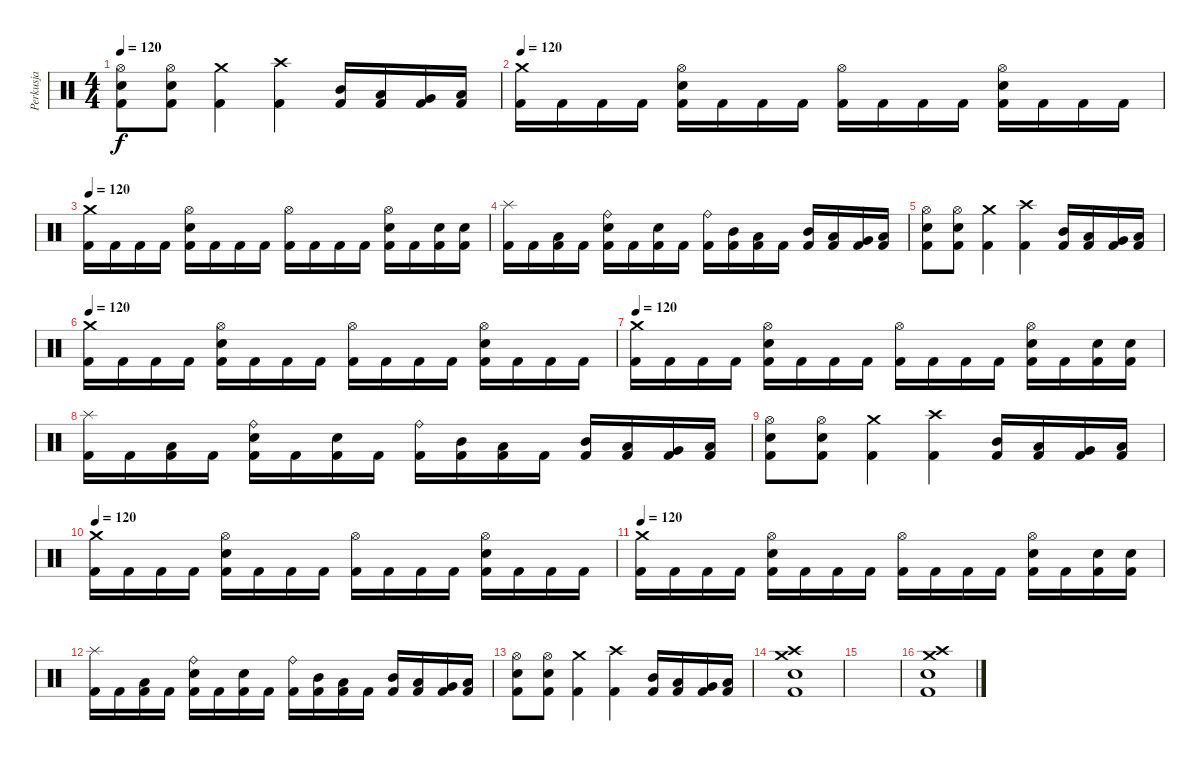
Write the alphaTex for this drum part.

\track ("Perkusja" "Perkusja") {instrument percussion}
\staff {score}
\articulation defaults
\ts (4 4)
\tempo 120
\clef neutral
\ks c
("Kick (hit) 2" "Electric Snare (hit)" "Hi-Hat (open)").8{dy f} ("Kick (hit) 2" "Electric Snare (hit)" "Hi-Hat (open)").8 ("Crash medium (hit)" "Kick (hit) 2").4 ("Crash high (hit)" "Kick (hit) 2").4 ("Mid Tom (hit)" "Kick (hit) 2").16 ("Low Tom (hit)" "Kick (hit) 2").16 ("Very Low Tom (hit)" "Kick (hit) 2").16 ("Low Floor Tom (hit)" "Kick (hit) 2").16 |
\tempo 120
("Crash medium (hit)" "Kick (hit) 2").16 "Kick (hit) 2".16 "Kick (hit) 2".16 "Kick (hit) 2".16 ("Hi-Hat (open)" "Electric Snare (hit)" "Kick (hit) 2").16 "Kick (hit) 2".16 "Kick (hit) 2".16 "Kick (hit) 2".16 ("Hi-Hat (open)" "Kick (hit) 2").16 "Kick (hit) 2".16 "Kick (hit) 2".16 "Kick (hit) 2".16 ("Hi-Hat (open)" "Electric Snare (hit)" "Kick (hit) 2").16 "Kick (hit) 2".16 "Kick (hit) 2".16 "Kick (hit) 2".16 |
\tempo 120
("Crash medium (hit)" "Kick (hit) 2").16 "Kick (hit) 2".16 "Kick (hit) 2".16 "Kick (hit) 2".16 ("Hi-Hat (open)" "Electric Snare (hit)" "Kick (hit) 2").16 "Kick (hit) 2".16 "Kick (hit) 2".16 "Kick (hit) 2".16 ("Hi-Hat (open)" "Kick (hit) 2").16 "Kick (hit) 2".16 "Kick (hit) 2".16 "Kick (hit) 2".16 ("Hi-Hat (open)" "Electric Snare (hit)" "Kick (hit) 2").16 "Kick (hit) 2".16 ("Electric Snare (hit)" "Kick (hit) 2").16 ("Electric Snare (hit)" "Kick (hit) 2").16 |
("Splash (hit)" "Kick (hit) 2").16 "Kick (hit) 2".16 ("Low Tom (hit)" "Kick (hit) 2").16 "Kick (hit) 2".16 ("Ride (bell)" "Electric Snare (hit)" "Kick (hit) 2").16 "Kick (hit) 2".16 ("Electric Snare (hit)" "Kick (hit) 2").16 "Kick (hit) 2".16 ("Ride (bell)" "Kick (hit) 2").16 ("Mid Tom (hit)" "Kick (hit) 2").16 ("Low Tom (hit)" "Kick (hit) 2").16 "Kick (hit) 2".16 ("Mid Tom (hit)" "Kick (hit) 2").16 ("Low Tom (hit)" "Kick (hit) 2").16 ("Very Low Tom (hit)" "Kick (hit) 2").16 ("Low Floor Tom (hit)" "Kick (hit) 2").16 |
("Kick (hit) 2" "Electric Snare (hit)" "Hi-Hat (open)").8 ("Kick (hit) 2" "Electric Snare (hit)" "Hi-Hat (open)").8 ("Crash medium (hit)" "Kick (hit) 2").4 ("Crash high (hit)" "Kick (hit) 2").4 ("Mid Tom (hit)" "Kick (hit) 2").16 ("Low Tom (hit)" "Kick (hit) 2").16 ("Very Low Tom (hit)" "Kick (hit) 2").16 ("Low Floor Tom (hit)" "Kick (hit) 2").16 |
\tempo 120
("Crash medium (hit)" "Kick (hit) 2").16 "Kick (hit) 2".16 "Kick (hit) 2".16 "Kick (hit) 2".16 ("Hi-Hat (open)" "Electric Snare (hit)" "Kick (hit) 2").16 "Kick (hit) 2".16 "Kick (hit) 2".16 "Kick (hit) 2".16 ("Hi-Hat (open)" "Kick (hit) 2").16 "Kick (hit) 2".16 "Kick (hit) 2".16 "Kick (hit) 2".16 ("Hi-Hat (open)" "Electric Snare (hit)" "Kick (hit) 2").16 "Kick (hit) 2".16 "Kick (hit) 2".16 "Kick (hit) 2".16 |
\tempo 120
("Crash medium (hit)" "Kick (hit) 2").16 "Kick (hit) 2".16 "Kick (hit) 2".16 "Kick (hit) 2".16 ("Hi-Hat (open)" "Electric Snare (hit)" "Kick (hit) 2").16 "Kick (hit) 2".16 "Kick (hit) 2".16 "Kick (hit) 2".16 ("Hi-Hat (open)" "Kick (hit) 2").16 "Kick (hit) 2".16 "Kick (hit) 2".16 "Kick (hit) 2".16 ("Hi-Hat (open)" "Electric Snare (hit)" "Kick (hit) 2").16 "Kick (hit) 2".16 ("Electric Snare (hit)" "Kick (hit) 2").16 ("Electric Snare (hit)" "Kick (hit) 2").16 |
("Splash (hit)" "Kick (hit) 2").16 "Kick (hit) 2".16 ("Low Tom (hit)" "Kick (hit) 2").16 "Kick (hit) 2".16 ("Ride (bell)" "Electric Snare (hit)" "Kick (hit) 2").16 "Kick (hit) 2".16 ("Electric Snare (hit)" "Kick (hit) 2").16 "Kick (hit) 2".16 ("Ride (bell)" "Kick (hit) 2").16 ("Mid Tom (hit)" "Kick (hit) 2").16 ("Low Tom (hit)" "Kick (hit) 2").16 "Kick (hit) 2".16 ("Mid Tom (hit)" "Kick (hit) 2").16 ("Low Tom (hit)" "Kick (hit) 2").16 ("Very Low Tom (hit)" "Kick (hit) 2").16 ("Low Floor Tom (hit)" "Kick (hit) 2").16 |
("Kick (hit) 2" "Electric Snare (hit)" "Hi-Hat (open)").8 ("Kick (hit) 2" "Electric Snare (hit)" "Hi-Hat (open)").8 ("Crash medium (hit)" "Kick (hit) 2").4 ("Crash high (hit)" "Kick (hit) 2").4 ("Mid Tom (hit)" "Kick (hit) 2").16 ("Low Tom (hit)" "Kick (hit) 2").16 ("Very Low Tom (hit)" "Kick (hit) 2").16 ("Low Floor Tom (hit)" "Kick (hit) 2").16 |
\tempo 120
("Crash medium (hit)" "Kick (hit) 2").16 "Kick (hit) 2".16 "Kick (hit) 2".16 "Kick (hit) 2".16 ("Hi-Hat (open)" "Electric Snare (hit)" "Kick (hit) 2").16 "Kick (hit) 2".16 "Kick (hit) 2".16 "Kick (hit) 2".16 ("Hi-Hat (open)" "Kick (hit) 2").16 "Kick (hit) 2".16 "Kick (hit) 2".16 "Kick (hit) 2".16 ("Hi-Hat (open)" "Electric Snare (hit)" "Kick (hit) 2").16 "Kick (hit) 2".16 "Kick (hit) 2".16 "Kick (hit) 2".16 |
\tempo 120
("Crash medium (hit)" "Kick (hit) 2").16 "Kick (hit) 2".16 "Kick (hit) 2".16 "Kick (hit) 2".16 ("Hi-Hat (open)" "Electric Snare (hit)" "Kick (hit) 2").16 "Kick (hit) 2".16 "Kick (hit) 2".16 "Kick (hit) 2".16 ("Hi-Hat (open)" "Kick (hit) 2").16 "Kick (hit) 2".16 "Kick (hit) 2".16 "Kick (hit) 2".16 ("Hi-Hat (open)" "Electric Snare (hit)" "Kick (hit) 2").16 "Kick (hit) 2".16 ("Electric Snare (hit)" "Kick (hit) 2").16 ("Electric Snare (hit)" "Kick (hit) 2").16 |
("Splash (hit)" "Kick (hit) 2").16 "Kick (hit) 2".16 ("Low Tom (hit)" "Kick (hit) 2").16 "Kick (hit) 2".16 ("Ride (bell)" "Electric Snare (hit)" "Kick (hit) 2").16 "Kick (hit) 2".16 ("Electric Snare (hit)" "Kick (hit) 2").16 "Kick (hit) 2".16 ("Ride (bell)" "Kick (hit) 2").16 ("Mid Tom (hit)" "Kick (hit) 2").16 ("Low Tom (hit)" "Kick (hit) 2").16 "Kick (hit) 2".16 ("Mid Tom (hit)" "Kick (hit) 2").16 ("Low Tom (hit)" "Kick (hit) 2").16 ("Very Low Tom (hit)" "Kick (hit) 2").16 ("Low Floor Tom (hit)" "Kick (hit) 2").16 |
("Kick (hit) 2" "Electric Snare (hit)" "Hi-Hat (open)").8 ("Kick (hit) 2" "Electric Snare (hit)" "Hi-Hat (open)").8 ("Crash medium (hit)" "Kick (hit) 2").4 ("Crash high (hit)" "Kick (hit) 2").4 ("Mid Tom (hit)" "Kick (hit) 2").16 ("Low Tom (hit)" "Kick (hit) 2").16 ("Very Low Tom (hit)" "Kick (hit) 2").16 ("Low Floor Tom (hit)" "Kick (hit) 2").16 |
("Crash high (hit)" "Crash medium (hit)" "Electric Snare (hit)" "Kick (hit) 2").1 |
|
("Snare (hit) 2" "Crash high (hit)" "Crash medium (hit)" "Kick (hit) 2").1
